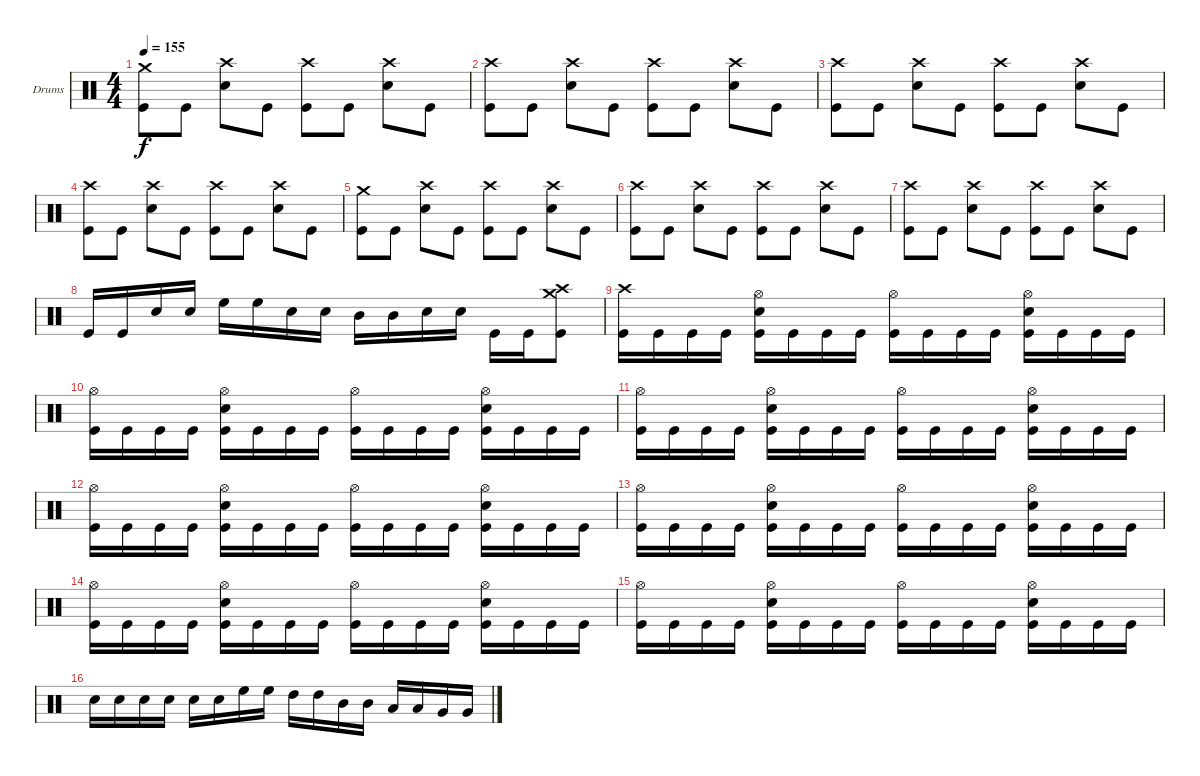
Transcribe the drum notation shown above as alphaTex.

\defaultSystemsLayout 4
\bracketExtendMode groupsimilarinstruments
\firstSystemTrackNameOrientation horizontal
\otherSystemsTrackNameOrientation horizontal
\track ("Drumkit" "Drums") {instrument percussion}
\staff {score}
\articulation defaults
\ts (4 4)
\tempo 155
\clef neutral
\scale
0.333333
\ks c
("Crash medium (hit)" "Kick (hit)").8{dy f} "Kick (hit)".8 ("Crash high (hit)" "Snare (hit) 2").8 "Kick (hit)".8 ("Crash high (hit)" "Kick (hit)").8 "Kick (hit)".8 ("Crash high (hit)" "Snare (hit) 2").8 "Kick (hit)".8 |
\scale
0.333333 ("Crash high (hit)" "Kick (hit)").8 "Kick (hit)".8 ("Crash high (hit)" "Snare (hit) 2").8 "Kick (hit)".8 ("Crash high (hit)" "Kick (hit)").8 "Kick (hit)".8 ("Crash high (hit)" "Snare (hit) 2").8 "Kick (hit)".8 |
\scale
0.333333 ("Crash high (hit)" "Kick (hit)").8 "Kick (hit)".8 ("Crash high (hit)" "Snare (hit) 2").8 "Kick (hit)".8 ("Crash high (hit)" "Kick (hit)").8 "Kick (hit)".8 ("Crash high (hit)" "Snare (hit) 2").8 "Kick (hit)".8 |
\scale
0.333333 ("Crash high (hit)" "Kick (hit)").8 "Kick (hit)".8 ("Crash high (hit)" "Snare (hit) 2").8 "Kick (hit)".8 ("Crash high (hit)" "Kick (hit)").8 "Kick (hit)".8 ("Crash high (hit)" "Snare (hit) 2").8 "Kick (hit)".8 |
\scale
0.333333 ("Crash medium (hit)" "Kick (hit)").8 "Kick (hit)".8 ("Crash high (hit)" "Snare (hit) 2").8 "Kick (hit)".8 ("Crash high (hit)" "Kick (hit)").8 "Kick (hit)".8 ("Crash high (hit)" "Snare (hit) 2").8 "Kick (hit)".8 |
\scale
0.333333 ("Crash high (hit)" "Kick (hit)").8 "Kick (hit)".8 ("Crash high (hit)" "Snare (hit) 2").8 "Kick (hit)".8 ("Crash high (hit)" "Kick (hit)").8 "Kick (hit)".8 ("Crash high (hit)" "Snare (hit) 2").8 "Kick (hit)".8 |
\scale
0.333333 ("Crash high (hit)" "Kick (hit)").8 "Kick (hit)".8 ("Crash high (hit)" "Snare (hit) 2").8 "Kick (hit)".8 ("Crash high (hit)" "Kick (hit)").8 "Kick (hit)".8 ("Crash high (hit)" "Snare (hit) 2").8 "Kick (hit)".8 |
\scale
0.333333 "Kick (hit)".16 "Kick (hit)".16 "Snare (hit) 2".16 "Snare (hit) 2".16 "High Floor Tom (hit)".16 "High Floor Tom (hit)".16 "Snare (hit) 2".16 "Snare (hit) 2".16 "Mid Tom (hit)".16 "Mid Tom (hit)".16 "Snare (hit) 2".16 "Snare (hit) 2".16 "Kick (hit)".16 "Kick (hit)".16 ("Crash medium (hit)" "Crash high (hit)" "Kick (hit)").8 |
\scale
0.333333 ("Crash high (hit)" "Kick (hit)").16 "Kick (hit)".16 "Kick (hit)".16 "Kick (hit)".16 ("Hi-Hat (open)" "Snare (hit) 2" "Kick (hit)").16 "Kick (hit)".16 "Kick (hit)".16 "Kick (hit)".16 ("Hi-Hat (open)" "Kick (hit)").16 "Kick (hit)".16 "Kick (hit)".16 "Kick (hit)".16 ("Hi-Hat (open)" "Snare (hit) 2" "Kick (hit)").16 "Kick (hit)".16 "Kick (hit)".16 "Kick (hit)".16 |
\scale
0.333333 ("Hi-Hat (open)" "Kick (hit)").16 "Kick (hit)".16 "Kick (hit)".16 "Kick (hit)".16 ("Hi-Hat (open)" "Snare (hit) 2" "Kick (hit)").16 "Kick (hit)".16 "Kick (hit)".16 "Kick (hit)".16 ("Hi-Hat (open)" "Kick (hit)").16 "Kick (hit)".16 "Kick (hit)".16 "Kick (hit)".16 ("Hi-Hat (open)" "Snare (hit) 2" "Kick (hit)").16 "Kick (hit)".16 "Kick (hit)".16 "Kick (hit)".16 |
\scale
0.333333 ("Hi-Hat (open)" "Kick (hit)").16 "Kick (hit)".16 "Kick (hit)".16 "Kick (hit)".16 ("Hi-Hat (open)" "Snare (hit) 2" "Kick (hit)").16 "Kick (hit)".16 "Kick (hit)".16 "Kick (hit)".16 ("Hi-Hat (open)" "Kick (hit)").16 "Kick (hit)".16 "Kick (hit)".16 "Kick (hit)".16 ("Hi-Hat (open)" "Snare (hit) 2" "Kick (hit)").16 "Kick (hit)".16 "Kick (hit)".16 "Kick (hit)".16 |
\scale
0.333333 ("Hi-Hat (open)" "Kick (hit)").16 "Kick (hit)".16 "Kick (hit)".16 "Kick (hit)".16 ("Hi-Hat (open)" "Snare (hit) 2" "Kick (hit)").16 "Kick (hit)".16 "Kick (hit)".16 "Kick (hit)".16 ("Hi-Hat (open)" "Kick (hit)").16 "Kick (hit)".16 "Kick (hit)".16 "Kick (hit)".16 ("Hi-Hat (open)" "Snare (hit) 2" "Kick (hit)").16 "Kick (hit)".16 "Kick (hit)".16 "Kick (hit)".16 |
\scale
0.333333 ("Hi-Hat (open)" "Kick (hit)").16 "Kick (hit)".16 "Kick (hit)".16 "Kick (hit)".16 ("Hi-Hat (open)" "Snare (hit) 2" "Kick (hit)").16 "Kick (hit)".16 "Kick (hit)".16 "Kick (hit)".16 ("Hi-Hat (open)" "Kick (hit)").16 "Kick (hit)".16 "Kick (hit)".16 "Kick (hit)".16 ("Hi-Hat (open)" "Snare (hit) 2" "Kick (hit)").16 "Kick (hit)".16 "Kick (hit)".16 "Kick (hit)".16 |
\scale
0.333333 ("Hi-Hat (open)" "Kick (hit)").16 "Kick (hit)".16 "Kick (hit)".16 "Kick (hit)".16 ("Hi-Hat (open)" "Snare (hit) 2" "Kick (hit)").16 "Kick (hit)".16 "Kick (hit)".16 "Kick (hit)".16 ("Hi-Hat (open)" "Kick (hit)").16 "Kick (hit)".16 "Kick (hit)".16 "Kick (hit)".16 ("Hi-Hat (open)" "Snare (hit) 2" "Kick (hit)").16 "Kick (hit)".16 "Kick (hit)".16 "Kick (hit)".16 |
\scale
0.333333 ("Hi-Hat (open)" "Kick (hit)").16 "Kick (hit)".16 "Kick (hit)".16 "Kick (hit)".16 ("Hi-Hat (open)" "Snare (hit) 2" "Kick (hit)").16 "Kick (hit)".16 "Kick (hit)".16 "Kick (hit)".16 ("Hi-Hat (open)" "Kick (hit)").16 "Kick (hit)".16 "Kick (hit)".16 "Kick (hit)".16 ("Hi-Hat (open)" "Snare (hit) 2" "Kick (hit)").16 "Kick (hit)".16 "Kick (hit)".16 "Kick (hit)".16 |
\scale
0.333333 "Snare (hit) 2".16 "Snare (hit) 2".16 "Snare (hit) 2".16 "Snare (hit) 2".16 "Snare (hit) 2".16 "Snare (hit) 2".16 "High Floor Tom (hit)".16 "High Floor Tom (hit)".16 "High Tom (hit)".16 "High Tom (hit)".16 "Mid Tom (hit)".16 "Mid Tom (hit)".16 "Low Tom (hit)".16 "Low Tom (hit)".16 "Very Low Tom (hit)".16 "Very Low Tom (hit)".16
